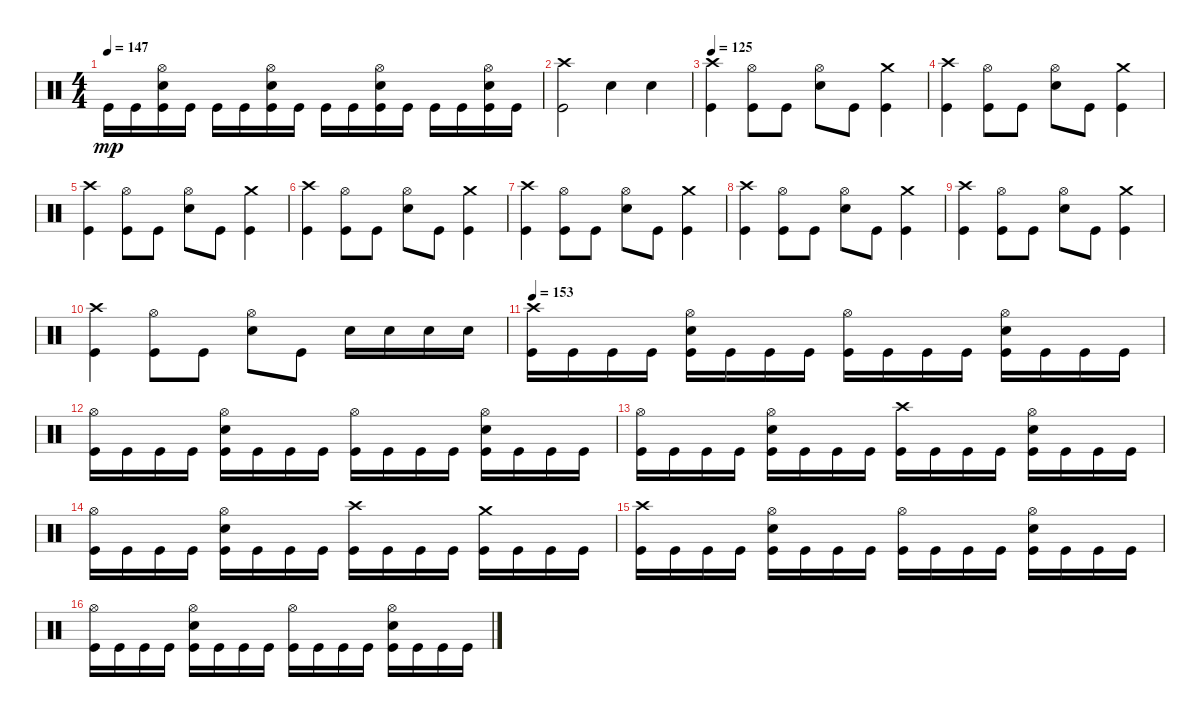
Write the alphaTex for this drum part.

\track "" {instrument percussion}
\staff {score}
\articulation defaults
\ts (4 4)
\tempo 147
\clef neutral
\ks c "Kick (hit)".16{dy mp} "Kick (hit)".16
("Kick (hit)" "Snare (hit) 2" "Hi-Hat (open)").16 "Kick (hit)".16 "Kick (hit)".16 "Kick (hit)".16 ("Kick (hit)" "Snare (hit) 2" "Hi-Hat (open)").16 "Kick (hit)".16 "Kick (hit)".16 "Kick (hit)".16 ("Kick (hit)" "Snare (hit) 2" "Hi-Hat (open)").16 "Kick (hit)".16 "Kick (hit)".16 "Kick (hit)".16 ("Kick (hit)" "Snare (hit) 2" "Hi-Hat (open)").16 "Kick (hit)".16 |
("Crash high (hit)" "Kick (hit)").2 "Snare (hit) 2".4 "Snare (hit) 2".4 |
\tempo 125
("Kick (hit)" "Crash high (hit)").4 ("Kick (hit)" "Hi-Hat (open)").8 "Kick (hit)".8 ("Snare (hit) 2" "Hi-Hat (open)").8 "Kick (hit)".8 ("Kick (hit)" "Crash medium (hit)").4 |
("Crash high (hit)" "Kick (hit)").4 ("Kick (hit)" "Hi-Hat (open)").8 "Kick (hit)".8 ("Snare (hit) 2" "Hi-Hat (open)").8 "Kick (hit)".8 ("Kick (hit)" "Crash medium (hit)").4 |
("Kick (hit)" "Crash high (hit)").4 ("Kick (hit)" "Hi-Hat (open)").8 "Kick (hit)".8 ("Snare (hit) 2" "Hi-Hat (open)").8 "Kick (hit)".8 ("Kick (hit)" "Crash medium (hit)").4 |
("Crash high (hit)" "Kick (hit)").4 ("Kick (hit)" "Hi-Hat (open)").8 "Kick (hit)".8 ("Snare (hit) 2" "Hi-Hat (open)").8 "Kick (hit)".8 ("Kick (hit)" "Crash medium (hit)").4 |
("Kick (hit)" "Crash high (hit)").4 ("Kick (hit)" "Hi-Hat (open)").8 "Kick (hit)".8 ("Snare (hit) 2" "Hi-Hat (open)").8 "Kick (hit)".8 ("Kick (hit)" "Crash medium (hit)").4 |
("Crash high (hit)" "Kick (hit)").4 ("Kick (hit)" "Hi-Hat (open)").8 "Kick (hit)".8 ("Snare (hit) 2" "Hi-Hat (open)").8 "Kick (hit)".8 ("Kick (hit)" "Crash medium (hit)").4 |
("Kick (hit)" "Crash high (hit)").4 ("Kick (hit)" "Hi-Hat (open)").8 "Kick (hit)".8 ("Snare (hit) 2" "Hi-Hat (open)").8 "Kick (hit)".8 ("Kick (hit)" "Crash medium (hit)").4 |
("Crash high (hit)" "Kick (hit)").4 ("Kick (hit)" "Hi-Hat (open)").8 "Kick (hit)".8 ("Snare (hit) 2" "Hi-Hat (open)").8 "Kick (hit)".8 "Snare (hit) 2".16 "Snare (hit) 2".16 "Snare (hit) 2".16 "Snare (hit) 2".16 |
\tempo 153
("Kick (hit)" "Crash high (hit)").16 "Kick (hit)".16 "Kick (hit)".16 "Kick (hit)".16 ("Kick (hit)" "Snare (hit) 2" "Hi-Hat (open)").16 "Kick (hit)".16 "Kick (hit)".16 "Kick (hit)".16 ("Kick (hit)" "Hi-Hat (open)").16 "Kick (hit)".16 "Kick (hit)".16 "Kick (hit)".16 ("Kick (hit)" "Snare (hit) 2" "Hi-Hat (open)").16 "Kick (hit)".16 "Kick (hit)".16 "Kick (hit)".16 |
("Kick (hit)" "Hi-Hat (open)").16 "Kick (hit)".16 "Kick (hit)".16 "Kick (hit)".16 ("Kick (hit)" "Snare (hit) 2" "Hi-Hat (open)").16 "Kick (hit)".16 "Kick (hit)".16 "Kick (hit)".16 ("Kick (hit)" "Hi-Hat (open)").16 "Kick (hit)".16 "Kick (hit)".16 "Kick (hit)".16 ("Kick (hit)" "Hi-Hat (open)" "Snare (hit) 2").16 "Kick (hit)".16 "Kick (hit)".16 "Kick (hit)".16 |
("Kick (hit)" "Hi-Hat (open)").16 "Kick (hit)".16 "Kick (hit)".16 "Kick (hit)".16 ("Kick (hit)" "Snare (hit) 2" "Hi-Hat (open)").16 "Kick (hit)".16 "Kick (hit)".16 "Kick (hit)".16 ("Kick (hit)" "Crash high (hit)").16 "Kick (hit)".16 "Kick (hit)".16 "Kick (hit)".16 ("Kick (hit)" "Snare (hit) 2" "Hi-Hat (open)").16 "Kick (hit)".16 "Kick (hit)".16 "Kick (hit)".16 |
("Hi-Hat (open)" "Kick (hit)").16 "Kick (hit)".16 "Kick (hit)".16 "Kick (hit)".16 ("Kick (hit)" "Snare (hit) 2" "Hi-Hat (open)").16 "Kick (hit)".16 "Kick (hit)".16 "Kick (hit)".16 ("Kick (hit)" "Crash high (hit)").16 "Kick (hit)".16 "Kick (hit)".16 "Kick (hit)".16 ("Kick (hit)" "Crash medium (hit)").16 "Kick (hit)".16 "Kick (hit)".16 "Kick (hit)".16 |
("Kick (hit)" "Crash high (hit)").16 "Kick (hit)".16 "Kick (hit)".16 "Kick (hit)".16 ("Kick (hit)" "Snare (hit) 2" "Hi-Hat (open)").16 "Kick (hit)".16 "Kick (hit)".16 "Kick (hit)".16 ("Kick (hit)" "Hi-Hat (open)").16 "Kick (hit)".16 "Kick (hit)".16 "Kick (hit)".16 ("Kick (hit)" "Snare (hit) 2" "Hi-Hat (open)").16 "Kick (hit)".16 "Kick (hit)".16 "Kick (hit)".16 |
("Kick (hit)" "Hi-Hat (open)").16 "Kick (hit)".16 "Kick (hit)".16 "Kick (hit)".16 ("Kick (hit)" "Snare (hit) 2" "Hi-Hat (open)").16 "Kick (hit)".16 "Kick (hit)".16 "Kick (hit)".16 ("Kick (hit)" "Hi-Hat (open)").16 "Kick (hit)".16 "Kick (hit)".16 "Kick (hit)".16 ("Kick (hit)" "Snare (hit) 2" "Hi-Hat (open)").16 "Kick (hit)".16 "Kick (hit)".16 "Kick (hit)".16
